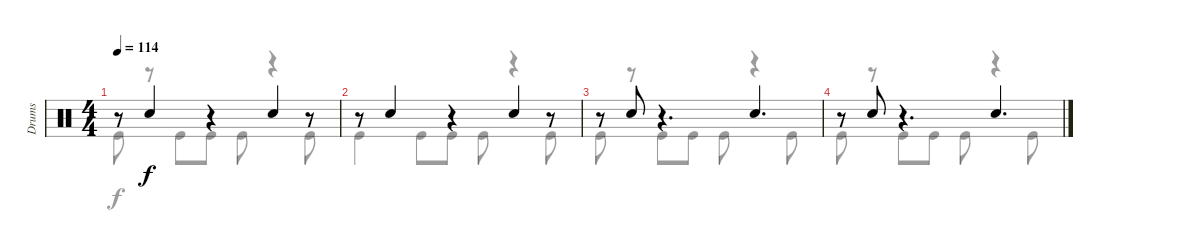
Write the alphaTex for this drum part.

\track ("Drums" "Drums") {instrument percussion}
\staff {score}
\articulation defaults
\voice
\ts (4 4)
\tempo 114
\clef neutral
\ks c
r.8{dy f} "Snare (hit) 2".4 r.4 "Snare (hit) 2".4 r.8 |
r.8 "Snare (hit) 2".4 r.4 "Snare (hit) 2".4 r.8 |
r.8 "Snare (hit) 2".8 r.4{d} "Snare (hit) 2".4{d} |
r.8 "Snare (hit) 2".8 r.4{d} "Snare (hit) 2".4{d}
\voice
\clef neutral
\ottava regular
\simile none
\ks c "Kick (hit)".8{dy f}
r.8 "Kick (hit)".8 "Kick (hit)".8 "Kick (hit)".8 r.4 "Kick (hit)".8 |
"Kick (hit)".4 "Kick (hit)".8 "Kick (hit)".8 "Kick (hit)".8 r.4 "Kick (hit)".8 |
"Kick (hit)".8 r.8 "Kick (hit)".8 "Kick (hit)".8 "Kick (hit)".8 r.4 "Kick (hit)".8 |
"Kick (hit)".8 r.8 "Kick (hit)".8 "Kick (hit)".8 "Kick (hit)".8 r.4 "Kick (hit)".8
